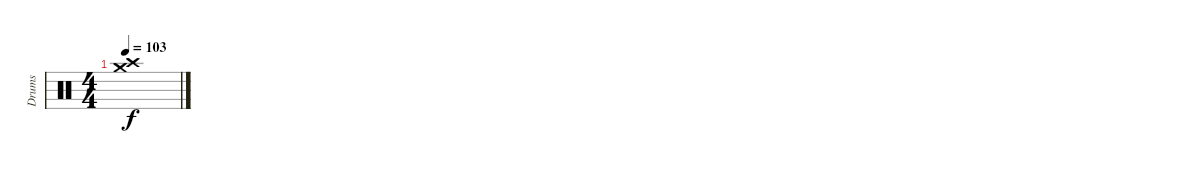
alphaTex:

\track ("Drums" "Drums") {instrument percussion}
\staff {score}
\articulation defaults
\ts (4 4)
\tempo 103
\clef neutral
\ks c
("Crash medium (hit)" "Crash high (hit)").1{dy f}
